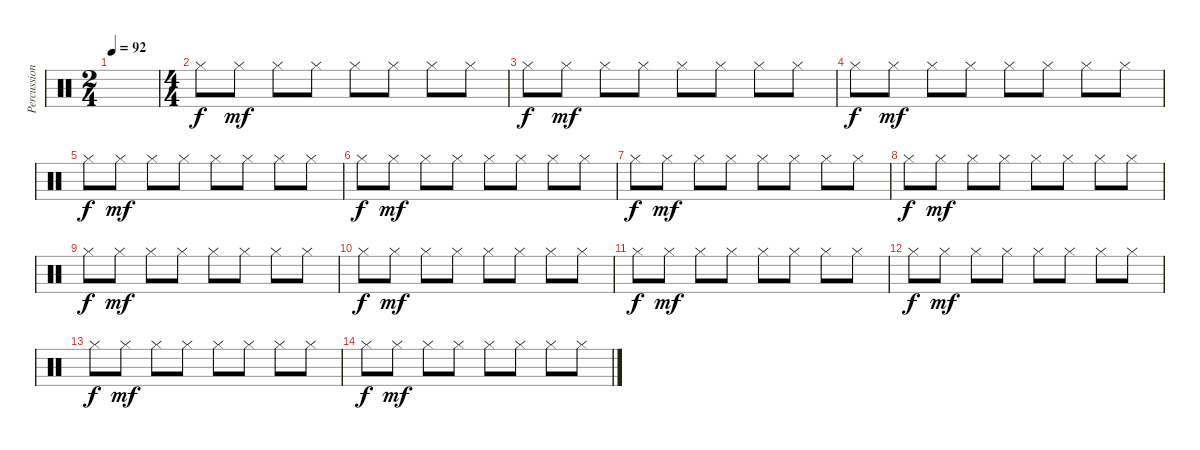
\track ("Percussion" "Percussion") {instrument percussion}
\staff {score}
\articulation defaults
\ts (2 4)
\tempo 92
\clef neutral
\ks c
|
\ts (4 4)
"Hi-Hat (closed)".8{dy f} "Hi-Hat (closed)".8{dy mf} "Hi-Hat (closed)".8 "Hi-Hat (closed)".8 "Hi-Hat (closed)".8 "Hi-Hat (closed)".8 "Hi-Hat (closed)".8 "Hi-Hat (closed)".8 |
"Hi-Hat (closed)".8{dy f} "Hi-Hat (closed)".8{dy mf} "Hi-Hat (closed)".8 "Hi-Hat (closed)".8 "Hi-Hat (closed)".8 "Hi-Hat (closed)".8 "Hi-Hat (closed)".8 "Hi-Hat (closed)".8 |
"Hi-Hat (closed)".8{dy f} "Hi-Hat (closed)".8{dy mf} "Hi-Hat (closed)".8 "Hi-Hat (closed)".8 "Hi-Hat (closed)".8 "Hi-Hat (closed)".8 "Hi-Hat (closed)".8 "Hi-Hat (closed)".8 |
"Hi-Hat (closed)".8{dy f} "Hi-Hat (closed)".8{dy mf} "Hi-Hat (closed)".8 "Hi-Hat (closed)".8 "Hi-Hat (closed)".8 "Hi-Hat (closed)".8 "Hi-Hat (closed)".8 "Hi-Hat (closed)".8 |
"Hi-Hat (closed)".8{dy f} "Hi-Hat (closed)".8{dy mf} "Hi-Hat (closed)".8 "Hi-Hat (closed)".8 "Hi-Hat (closed)".8 "Hi-Hat (closed)".8 "Hi-Hat (closed)".8 "Hi-Hat (closed)".8 |
"Hi-Hat (closed)".8{dy f} "Hi-Hat (closed)".8{dy mf} "Hi-Hat (closed)".8 "Hi-Hat (closed)".8 "Hi-Hat (closed)".8 "Hi-Hat (closed)".8 "Hi-Hat (closed)".8 "Hi-Hat (closed)".8 |
"Hi-Hat (closed)".8{dy f} "Hi-Hat (closed)".8{dy mf} "Hi-Hat (closed)".8 "Hi-Hat (closed)".8 "Hi-Hat (closed)".8 "Hi-Hat (closed)".8 "Hi-Hat (closed)".8 "Hi-Hat (closed)".8 |
"Hi-Hat (closed)".8{dy f} "Hi-Hat (closed)".8{dy mf} "Hi-Hat (closed)".8 "Hi-Hat (closed)".8 "Hi-Hat (closed)".8 "Hi-Hat (closed)".8 "Hi-Hat (closed)".8 "Hi-Hat (closed)".8 |
"Hi-Hat (closed)".8{dy f} "Hi-Hat (closed)".8{dy mf} "Hi-Hat (closed)".8 "Hi-Hat (closed)".8 "Hi-Hat (closed)".8 "Hi-Hat (closed)".8 "Hi-Hat (closed)".8 "Hi-Hat (closed)".8 |
"Hi-Hat (closed)".8{dy f} "Hi-Hat (closed)".8{dy mf} "Hi-Hat (closed)".8 "Hi-Hat (closed)".8 "Hi-Hat (closed)".8 "Hi-Hat (closed)".8 "Hi-Hat (closed)".8 "Hi-Hat (closed)".8 |
"Hi-Hat (closed)".8{dy f} "Hi-Hat (closed)".8{dy mf} "Hi-Hat (closed)".8 "Hi-Hat (closed)".8 "Hi-Hat (closed)".8 "Hi-Hat (closed)".8 "Hi-Hat (closed)".8 "Hi-Hat (closed)".8 |
"Hi-Hat (closed)".8{dy f} "Hi-Hat (closed)".8{dy mf} "Hi-Hat (closed)".8 "Hi-Hat (closed)".8 "Hi-Hat (closed)".8 "Hi-Hat (closed)".8 "Hi-Hat (closed)".8 "Hi-Hat (closed)".8 |
"Hi-Hat (closed)".8{dy f} "Hi-Hat (closed)".8{dy mf} "Hi-Hat (closed)".8 "Hi-Hat (closed)".8 "Hi-Hat (closed)".8 "Hi-Hat (closed)".8 "Hi-Hat (closed)".8 "Hi-Hat (closed)".8
